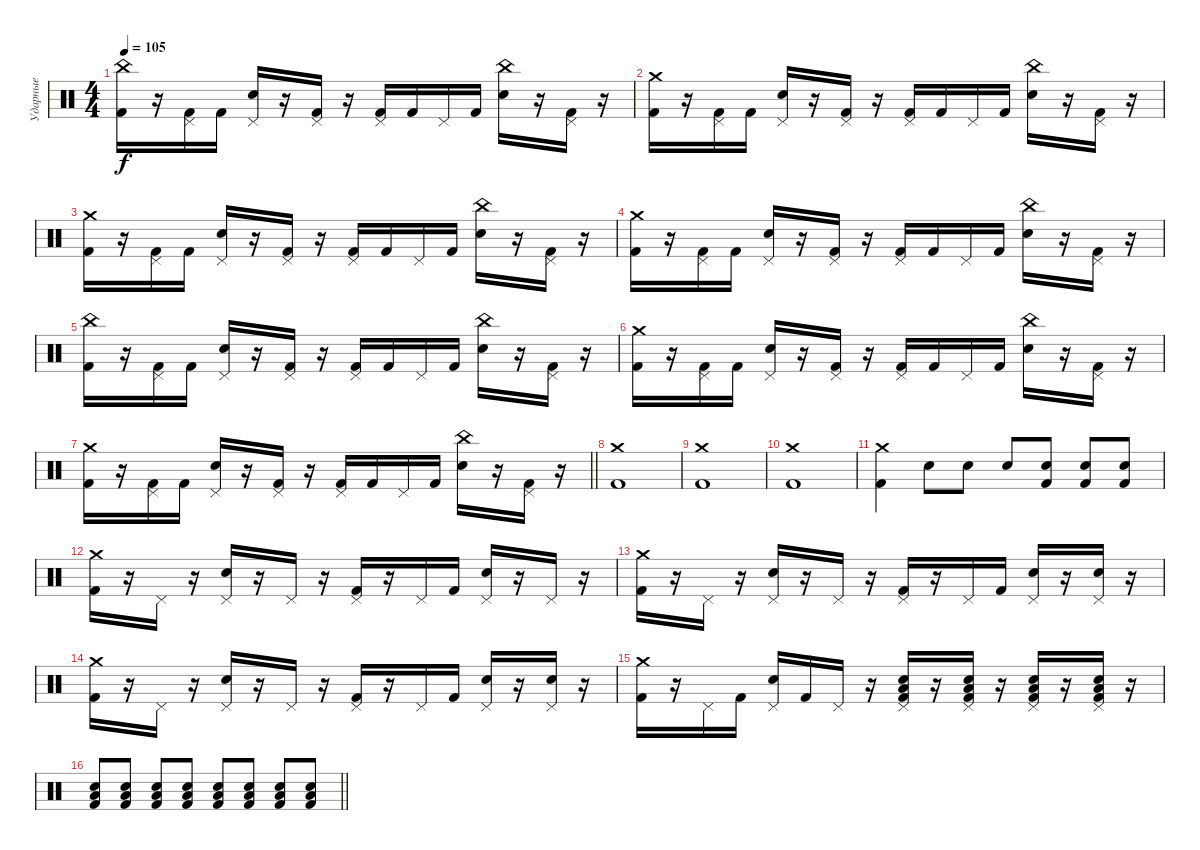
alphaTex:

\track ("Ударные" "Ударные") {instrument percussion}
\staff {score}
\articulation defaults
\ts (4 4)
\tempo 105
\clef neutral
\ks c
("China (hit)" "Kick (hit) 2").16{dy f} r.16 ("Pedal Hi-Hat (hit)" "Kick (hit) 2").16 "Kick (hit) 2".16 ("Pedal Hi-Hat (hit)" "Electric Snare (hit)").16 r.16 ("Pedal Hi-Hat (hit)" "Kick (hit) 2").16 r.16 ("Pedal Hi-Hat (hit)" "Kick (hit) 2").16 "Kick (hit) 2".16 "Pedal Hi-Hat (hit)".16 "Kick (hit) 2".16 ("China (hit)" "Electric Snare (hit)").16 r.16 ("Pedal Hi-Hat (hit)" "Kick (hit) 2").16 r.16 |
("Crash medium (hit)" "Kick (hit) 2").16 r.16 ("Pedal Hi-Hat (hit)" "Kick (hit) 2").16 "Kick (hit) 2".16 ("Pedal Hi-Hat (hit)" "Electric Snare (hit)").16 r.16 ("Pedal Hi-Hat (hit)" "Kick (hit) 2").16 r.16 ("Pedal Hi-Hat (hit)" "Kick (hit) 2").16 "Kick (hit) 2".16 "Pedal Hi-Hat (hit)".16 "Kick (hit) 2".16 ("China (hit)" "Electric Snare (hit)").16 r.16 ("Pedal Hi-Hat (hit)" "Kick (hit) 2").16 r.16 |
("Crash medium (hit)" "Kick (hit) 2").16 r.16 ("Pedal Hi-Hat (hit)" "Kick (hit) 2").16 "Kick (hit) 2".16 ("Pedal Hi-Hat (hit)" "Electric Snare (hit)").16 r.16 ("Pedal Hi-Hat (hit)" "Kick (hit) 2").16 r.16 ("Pedal Hi-Hat (hit)" "Kick (hit) 2").16 "Kick (hit) 2".16 "Pedal Hi-Hat (hit)".16 "Kick (hit) 2".16 ("China (hit)" "Electric Snare (hit)").16 r.16 ("Pedal Hi-Hat (hit)" "Kick (hit) 2").16 r.16 |
("Crash medium (hit)" "Kick (hit) 2").16 r.16 ("Pedal Hi-Hat (hit)" "Kick (hit) 2").16 "Kick (hit) 2".16 ("Pedal Hi-Hat (hit)" "Electric Snare (hit)").16 r.16 ("Pedal Hi-Hat (hit)" "Kick (hit) 2").16 r.16 ("Pedal Hi-Hat (hit)" "Kick (hit) 2").16 "Kick (hit) 2".16 "Pedal Hi-Hat (hit)".16 "Kick (hit) 2".16 ("China (hit)" "Electric Snare (hit)").16 r.16 ("Pedal Hi-Hat (hit)" "Kick (hit) 2").16 r.16 |
("China (hit)" "Kick (hit) 2").16 r.16 ("Pedal Hi-Hat (hit)" "Kick (hit) 2").16 "Kick (hit) 2".16 ("Pedal Hi-Hat (hit)" "Electric Snare (hit)").16 r.16 ("Pedal Hi-Hat (hit)" "Kick (hit) 2").16 r.16 ("Pedal Hi-Hat (hit)" "Kick (hit) 2").16 "Kick (hit) 2".16 "Pedal Hi-Hat (hit)".16 "Kick (hit) 2".16 ("China (hit)" "Electric Snare (hit)").16 r.16 ("Pedal Hi-Hat (hit)" "Kick (hit) 2").16 r.16 |
("Crash medium (hit)" "Kick (hit) 2").16 r.16 ("Pedal Hi-Hat (hit)" "Kick (hit) 2").16 "Kick (hit) 2".16 ("Pedal Hi-Hat (hit)" "Electric Snare (hit)").16 r.16 ("Pedal Hi-Hat (hit)" "Kick (hit) 2").16 r.16 ("Pedal Hi-Hat (hit)" "Kick (hit) 2").16 "Kick (hit) 2".16 "Pedal Hi-Hat (hit)".16 "Kick (hit) 2".16 ("China (hit)" "Electric Snare (hit)").16 r.16 ("Pedal Hi-Hat (hit)" "Kick (hit) 2").16 r.16 |
\barLineRight lightlight
("Crash medium (hit)" "Kick (hit) 2").16 r.16 ("Pedal Hi-Hat (hit)" "Kick (hit) 2").16 "Kick (hit) 2".16 ("Pedal Hi-Hat (hit)" "Electric Snare (hit)").16 r.16 ("Pedal Hi-Hat (hit)" "Kick (hit) 2").16 r.16 ("Pedal Hi-Hat (hit)" "Kick (hit) 2").16 "Kick (hit) 2".16 "Pedal Hi-Hat (hit)".16 "Kick (hit) 2".16 ("China (hit)" "Electric Snare (hit)").16 r.16 ("Pedal Hi-Hat (hit)" "Kick (hit) 2").16 r.16 |
\section ("" "")
("Crash medium (hit)" "Kick (hit) 2").1 |
("Crash medium (hit)" "Kick (hit) 2").1 |
("Crash medium (hit)" "Kick (hit) 2").1 |
("Crash medium (hit)" "Kick (hit) 2").4 "Electric Snare (hit)".8 "Electric Snare (hit)".8 "Electric Snare (hit)".8 ("Electric Snare (hit)" "Kick (hit) 2").8 ("Electric Snare (hit)" "Kick (hit) 2").8 ("Electric Snare (hit)" "Kick (hit) 2").8 |
("Crash medium (hit)" "Kick (hit) 2").16 r.16 "Pedal Hi-Hat (hit)".16 r.16 ("Pedal Hi-Hat (hit)" "Electric Snare (hit)").16 r.16 "Pedal Hi-Hat (hit)".16 r.16 ("Pedal Hi-Hat (hit)" "Kick (hit) 2").16 r.16 "Pedal Hi-Hat (hit)".16 "Kick (hit) 2".16 ("Pedal Hi-Hat (hit)" "Electric Snare (hit)").16 r.16 "Pedal Hi-Hat (hit)".16 r.16 |
("Crash medium (hit)" "Kick (hit) 2").16 r.16 "Pedal Hi-Hat (hit)".16 r.16 ("Pedal Hi-Hat (hit)" "Electric Snare (hit)").16 r.16 "Pedal Hi-Hat (hit)".16 r.16 ("Pedal Hi-Hat (hit)" "Kick (hit) 2").16 r.16 "Pedal Hi-Hat (hit)".16 "Kick (hit) 2".16 ("Pedal Hi-Hat (hit)" "Electric Snare (hit)").16 r.16 ("Pedal Hi-Hat (hit)" "Electric Snare (hit)").16 r.16 |
("Crash medium (hit)" "Kick (hit) 2").16 r.16 "Pedal Hi-Hat (hit)".16 r.16 ("Pedal Hi-Hat (hit)" "Electric Snare (hit)").16 r.16 "Pedal Hi-Hat (hit)".16 r.16 ("Pedal Hi-Hat (hit)" "Kick (hit) 2").16 r.16 "Pedal Hi-Hat (hit)".16 "Kick (hit) 2".16 ("Pedal Hi-Hat (hit)" "Electric Snare (hit)").16 r.16 ("Pedal Hi-Hat (hit)" "Electric Snare (hit)").16 r.16 |
("Crash medium (hit)" "Kick (hit) 2").16 r.16 "Pedal Hi-Hat (hit)".16 "Kick (hit) 2".16 ("Pedal Hi-Hat (hit)" "Electric Snare (hit)").16 "Kick (hit) 2".16 "Pedal Hi-Hat (hit)".16 r.16 ("Pedal Hi-Hat (hit)" "Low Tom (hit)" "Electric Snare (hit)" "Kick (hit) 2").16 r.16 ("Pedal Hi-Hat (hit)" "Low Tom (hit)" "Electric Snare (hit)" "Kick (hit) 2").16 r.16 ("Pedal Hi-Hat (hit)" "Low Tom (hit)" "Electric Snare (hit)" "Kick (hit) 2").16 r.16 ("Pedal Hi-Hat (hit)" "Low Tom (hit)" "Electric Snare (hit)" "Kick (hit) 2").16 r.16 |
\barLineRight lightlight
("Kick (hit) 2" "Low Tom (hit)" "Electric Snare (hit)").8 ("Kick (hit) 2" "Low Tom (hit)" "Electric Snare (hit)").8 ("Kick (hit) 2" "Low Tom (hit)" "Electric Snare (hit)").8 ("Kick (hit) 2" "Low Tom (hit)" "Electric Snare (hit)").8 ("Kick (hit) 2" "Low Tom (hit)" "Electric Snare (hit)").8 ("Kick (hit) 2" "Low Tom (hit)" "Electric Snare (hit)").8 ("Kick (hit) 2" "Low Tom (hit)" "Electric Snare (hit)").8 ("Kick (hit) 2" "Low Tom (hit)" "Electric Snare (hit)").8
